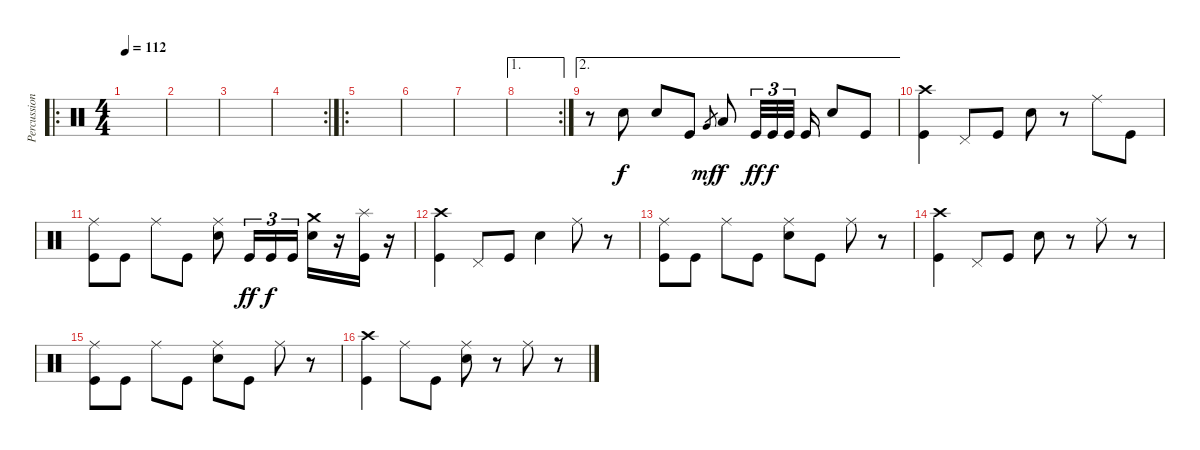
\track ("Percussion" "Percussion") {instrument percussion}
\staff {score}
\articulation defaults
\ro
\ts (4 4)
\tempo 112
\clef neutral
\ks c
|
|
|
\rc 2
|
\ro
|
|
|
\ae 1
\rc 2
|
\ae 2
r.8 "Snare (hit) 2".8 "Snare (hit) 2".8 "Kick (hit)".8 "Very Low Tom (hit)".8{gr dy mf} "Low Tom (hit)".8{dy f} "Kick (hit)".32{tu (3 2) dy ff} "Kick (hit)".32{tu (3 2) dy f} "Kick (hit)".32{tu (3 2)} "Kick (hit)".16 "Snare (hit) 2".8 "Kick (hit)".8 |
("Crash high (hit)" "Kick (hit)").4 "Pedal Hi-Hat (hit)".8 "Kick (hit)".8 "Snare (hit) 2".8 r.8 "Ride (middle)".8 "Kick (hit)".8 |
("Ride (middle)" "Kick (hit)").8 "Kick (hit)".8 "Ride (middle)".8 "Kick (hit)".8 ("Ride (middle)" "Snare (hit) 2").8 "Kick (hit)".16{tu (3 2) dy ff} "Kick (hit)".16{tu (3 2) dy f} "Kick (hit)".16{tu (3 2)} ("Crash medium (hit)" "Snare (hit) 2").16 r.16 ("Splash (hit)" "Kick (hit)").16 r.16 |
("Crash high (hit)" "Kick (hit)").4 "Pedal Hi-Hat (hit)".8 "Kick (hit)".8 "Snare (hit) 2".4 "Ride (middle)".8 r.8 |
("Ride (middle)" "Kick (hit)").8 "Kick (hit)".8 "Ride (middle)".8 "Kick (hit)".8 ("Ride (middle)" "Snare (hit) 2").8 "Kick (hit)".8 "Ride (middle)".8 r.8 |
("Crash high (hit)" "Kick (hit)").4 "Pedal Hi-Hat (hit)".8 "Kick (hit)".8 "Snare (hit) 2".8 r.8 "Ride (middle)".8 r.8 |
("Ride (middle)" "Kick (hit)").8 "Kick (hit)".8 "Ride (middle)".8 "Kick (hit)".8 ("Ride (middle)" "Snare (hit) 2").8 "Kick (hit)".8 "Ride (middle)".8 r.8 |
("Crash high (hit)" "Kick (hit)").4 "Ride (middle)".8 "Kick (hit)".8 ("Ride (middle)" "Snare (hit) 2").8 r.8 "Ride (middle)".8 r.8
